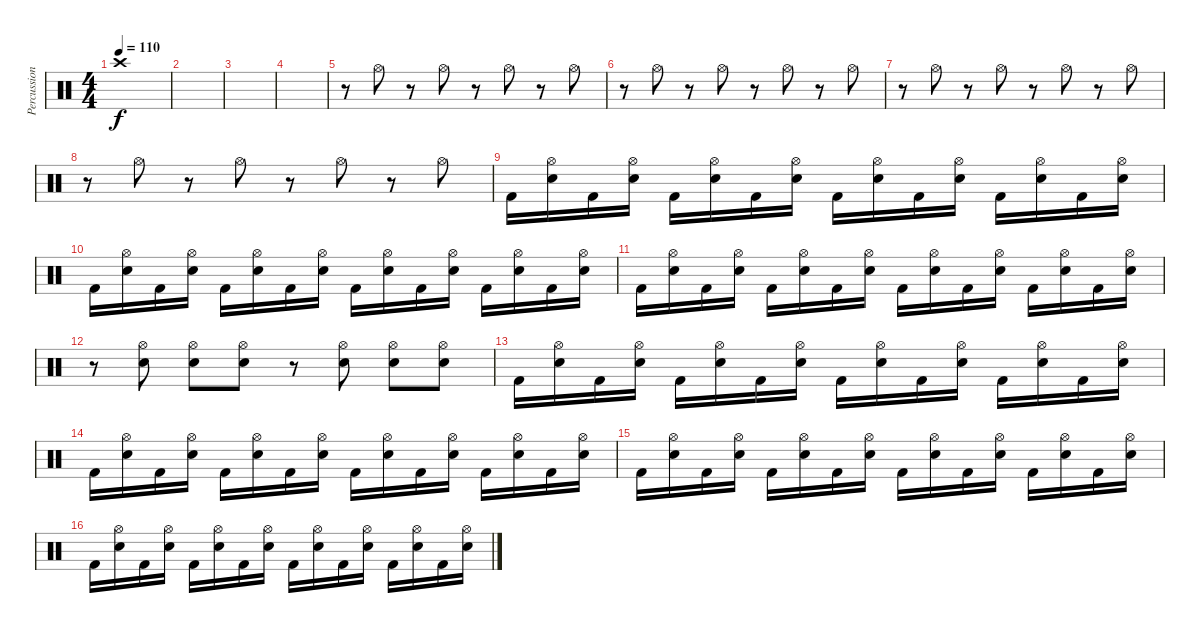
\track ("Percussion" "Percussion") {instrument percussion}
\staff {score}
\articulation defaults
\ts (4 4)
\tempo 110
\clef neutral
\ks c "Crash high (hit)".1{dy f}
|
|
|
|
r.8 "Hi-Hat (open)".8 r.8 "Hi-Hat (open)".8 r.8 "Hi-Hat (open)".8 r.8 "Hi-Hat (open)".8 |
r.8 "Hi-Hat (open)".8 r.8 "Hi-Hat (open)".8 r.8 "Hi-Hat (open)".8 r.8 "Hi-Hat (open)".8 |
r.8 "Hi-Hat (open)".8 r.8 "Hi-Hat (open)".8 r.8 "Hi-Hat (open)".8 r.8 "Hi-Hat (open)".8 |
r.8 "Hi-Hat (open)".8 r.8 "Hi-Hat (open)".8 r.8 "Hi-Hat (open)".8 r.8 "Hi-Hat (open)".8 |
"Kick (hit) 2".16 ("Hi-Hat (open)" "Snare (hit) 2").16 "Kick (hit) 2".16 ("Hi-Hat (open)" "Snare (hit) 2").16 "Kick (hit) 2".16 ("Hi-Hat (open)" "Snare (hit) 2").16 "Kick (hit) 2".16 ("Hi-Hat (open)" "Snare (hit) 2").16 "Kick (hit) 2".16 ("Hi-Hat (open)" "Snare (hit) 2").16 "Kick (hit) 2".16 ("Hi-Hat (open)" "Snare (hit) 2").16 "Kick (hit) 2".16 ("Hi-Hat (open)" "Snare (hit) 2").16 "Kick (hit) 2".16 ("Hi-Hat (open)" "Snare (hit) 2").16 |
"Kick (hit) 2".16 ("Hi-Hat (open)" "Snare (hit) 2").16 "Kick (hit) 2".16 ("Hi-Hat (open)" "Snare (hit) 2").16 "Kick (hit) 2".16 ("Hi-Hat (open)" "Snare (hit) 2").16 "Kick (hit) 2".16 ("Hi-Hat (open)" "Snare (hit) 2").16 "Kick (hit) 2".16 ("Hi-Hat (open)" "Snare (hit) 2").16 "Kick (hit) 2".16 ("Hi-Hat (open)" "Snare (hit) 2").16 "Kick (hit) 2".16 ("Hi-Hat (open)" "Snare (hit) 2").16 "Kick (hit) 2".16 ("Hi-Hat (open)" "Snare (hit) 2").16 |
"Kick (hit) 2".16 ("Hi-Hat (open)" "Snare (hit) 2").16 "Kick (hit) 2".16 ("Hi-Hat (open)" "Snare (hit) 2").16 "Kick (hit) 2".16 ("Hi-Hat (open)" "Snare (hit) 2").16 "Kick (hit) 2".16 ("Hi-Hat (open)" "Snare (hit) 2").16 "Kick (hit) 2".16 ("Hi-Hat (open)" "Snare (hit) 2").16 "Kick (hit) 2".16 ("Hi-Hat (open)" "Snare (hit) 2").16 "Kick (hit) 2".16 ("Hi-Hat (open)" "Snare (hit) 2").16 "Kick (hit) 2".16 ("Hi-Hat (open)" "Snare (hit) 2").16 |
r.8 ("Hi-Hat (open)" "Snare (hit) 2").8 ("Hi-Hat (open)" "Snare (hit) 2").8 ("Hi-Hat (open)" "Snare (hit) 2").8 r.8 ("Hi-Hat (open)" "Snare (hit) 2").8 ("Hi-Hat (open)" "Snare (hit) 2").8 ("Hi-Hat (open)" "Snare (hit) 2").8 |
"Kick (hit) 2".16 ("Hi-Hat (open)" "Snare (hit) 2").16 "Kick (hit) 2".16 ("Hi-Hat (open)" "Snare (hit) 2").16 "Kick (hit) 2".16 ("Hi-Hat (open)" "Snare (hit) 2").16 "Kick (hit) 2".16 ("Hi-Hat (open)" "Snare (hit) 2").16 "Kick (hit) 2".16 ("Hi-Hat (open)" "Snare (hit) 2").16 "Kick (hit) 2".16 ("Hi-Hat (open)" "Snare (hit) 2").16 "Kick (hit) 2".16 ("Hi-Hat (open)" "Snare (hit) 2").16 "Kick (hit) 2".16 ("Hi-Hat (open)" "Snare (hit) 2").16 |
"Kick (hit) 2".16 ("Hi-Hat (open)" "Snare (hit) 2").16 "Kick (hit) 2".16 ("Hi-Hat (open)" "Snare (hit) 2").16 "Kick (hit) 2".16 ("Hi-Hat (open)" "Snare (hit) 2").16 "Kick (hit) 2".16 ("Hi-Hat (open)" "Snare (hit) 2").16 "Kick (hit) 2".16 ("Hi-Hat (open)" "Snare (hit) 2").16 "Kick (hit) 2".16 ("Hi-Hat (open)" "Snare (hit) 2").16 "Kick (hit) 2".16 ("Hi-Hat (open)" "Snare (hit) 2").16 "Kick (hit) 2".16 ("Hi-Hat (open)" "Snare (hit) 2").16 |
"Kick (hit) 2".16 ("Hi-Hat (open)" "Snare (hit) 2").16 "Kick (hit) 2".16 ("Hi-Hat (open)" "Snare (hit) 2").16 "Kick (hit) 2".16 ("Hi-Hat (open)" "Snare (hit) 2").16 "Kick (hit) 2".16 ("Hi-Hat (open)" "Snare (hit) 2").16 "Kick (hit) 2".16 ("Hi-Hat (open)" "Snare (hit) 2").16 "Kick (hit) 2".16 ("Hi-Hat (open)" "Snare (hit) 2").16 "Kick (hit) 2".16 ("Hi-Hat (open)" "Snare (hit) 2").16 "Kick (hit) 2".16 ("Hi-Hat (open)" "Snare (hit) 2").16 |
"Kick (hit) 2".16 ("Hi-Hat (open)" "Snare (hit) 2").16 "Kick (hit) 2".16 ("Hi-Hat (open)" "Snare (hit) 2").16 "Kick (hit) 2".16 ("Hi-Hat (open)" "Snare (hit) 2").16 "Kick (hit) 2".16 ("Hi-Hat (open)" "Snare (hit) 2").16 "Kick (hit) 2".16 ("Hi-Hat (open)" "Snare (hit) 2").16 "Kick (hit) 2".16 ("Hi-Hat (open)" "Snare (hit) 2").16 "Kick (hit) 2".16 ("Hi-Hat (open)" "Snare (hit) 2").16 "Kick (hit) 2".16 ("Hi-Hat (open)" "Snare (hit) 2").16
